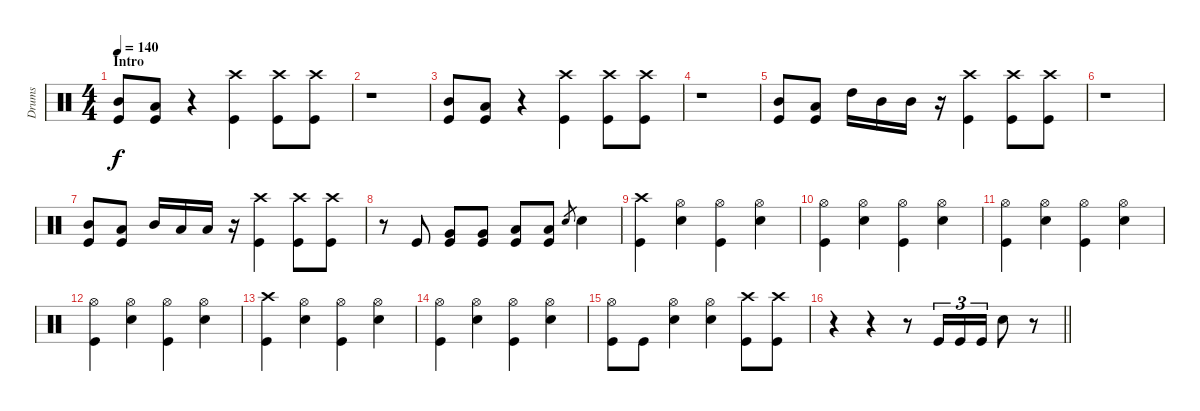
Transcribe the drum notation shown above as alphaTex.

\track ("Drums" "Drums") {instrument percussion}
\staff {score}
\articulation defaults
\ts (4 4)
\section ("" "Intro")
\tempo 140
\clef neutral
\ks c
("Kick (hit)" "Mid Tom (hit)").8{dy f} ("Kick (hit)" "Low Tom (hit)").8 r.4 ("Kick (hit)" "Crash high (hit)").4 ("Kick (hit)" "Crash high (hit)").8 ("Kick (hit)" "Crash high (hit)").8 |
r.1 |
("Kick (hit)" "Mid Tom (hit)").8 ("Kick (hit)" "Low Tom (hit)").8 r.4 ("Kick (hit)" "Crash high (hit)").4 ("Kick (hit)" "Crash high (hit)").8 ("Kick (hit)" "Crash high (hit)").8 |
r.1 |
("Kick (hit)" "Mid Tom (hit)").8 ("Kick (hit)" "Low Tom (hit)").8 "High Tom (hit)".16 "Mid Tom (hit)".16 "Mid Tom (hit)".16 r.16 ("Kick (hit)" "Crash high (hit)").4 ("Kick (hit)" "Crash high (hit)").8 ("Kick (hit)" "Crash high (hit)").8 |
r.1 |
("Kick (hit)" "Mid Tom (hit)").8 ("Kick (hit)" "Low Tom (hit)").8 "Mid Tom (hit)".16 "Low Tom (hit)".16 "Low Tom (hit)".16 r.16 ("Kick (hit)" "Crash high (hit)").4 ("Kick (hit)" "Crash high (hit)").8 ("Kick (hit)" "Crash high (hit)").8 |
r.8 "Kick (hit)".8 ("Kick (hit)" "Very Low Tom (hit)").8 ("Kick (hit)" "Very Low Tom (hit)").8 ("Kick (hit)" "Low Tom (hit)").8 ("Kick (hit)" "Low Tom (hit)").8 "Snare (hit) 2".8{gr} "Snare (hit) 2".4 |
("Kick (hit)" "Crash high (hit)").4 ("Snare (hit) 2" "Hi-Hat (open)").4 ("Kick (hit)" "Hi-Hat (open)").4 ("Snare (hit) 2" "Hi-Hat (open)").4 |
("Kick (hit)" "Hi-Hat (open)").4 ("Snare (hit) 2" "Hi-Hat (open)").4 ("Kick (hit)" "Hi-Hat (open)").4 ("Snare (hit) 2" "Hi-Hat (open)").4 |
("Kick (hit)" "Hi-Hat (open)").4 ("Snare (hit) 2" "Hi-Hat (open)").4 ("Kick (hit)" "Hi-Hat (open)").4 ("Snare (hit) 2" "Hi-Hat (open)").4 |
("Kick (hit)" "Hi-Hat (open)").4 ("Snare (hit) 2" "Hi-Hat (open)").4 ("Kick (hit)" "Hi-Hat (open)").4 ("Snare (hit) 2" "Hi-Hat (open)").4 |
("Kick (hit)" "Crash high (hit)").4 ("Snare (hit) 2" "Hi-Hat (open)").4 ("Kick (hit)" "Hi-Hat (open)").4 ("Snare (hit) 2" "Hi-Hat (open)").4 |
("Kick (hit)" "Hi-Hat (open)").4 ("Snare (hit) 2" "Hi-Hat (open)").4 ("Kick (hit)" "Hi-Hat (open)").4 ("Snare (hit) 2" "Hi-Hat (open)").4 |
("Kick (hit)" "Hi-Hat (open)").8 "Kick (hit)".8 ("Snare (hit) 2" "Hi-Hat (open)").4 ("Hi-Hat (open)" "Snare (hit) 2").4 ("Kick (hit)" "Crash high (hit)").8 ("Kick (hit)" "Crash high (hit)").8 |
\barLineRight lightlight
r.4 r.4 r.8 "Kick (hit)".16{tu (3 2)} "Kick (hit)".16{tu (3 2)} "Kick (hit)".16{tu (3 2)} "Snare (hit) 2".8 r.8
